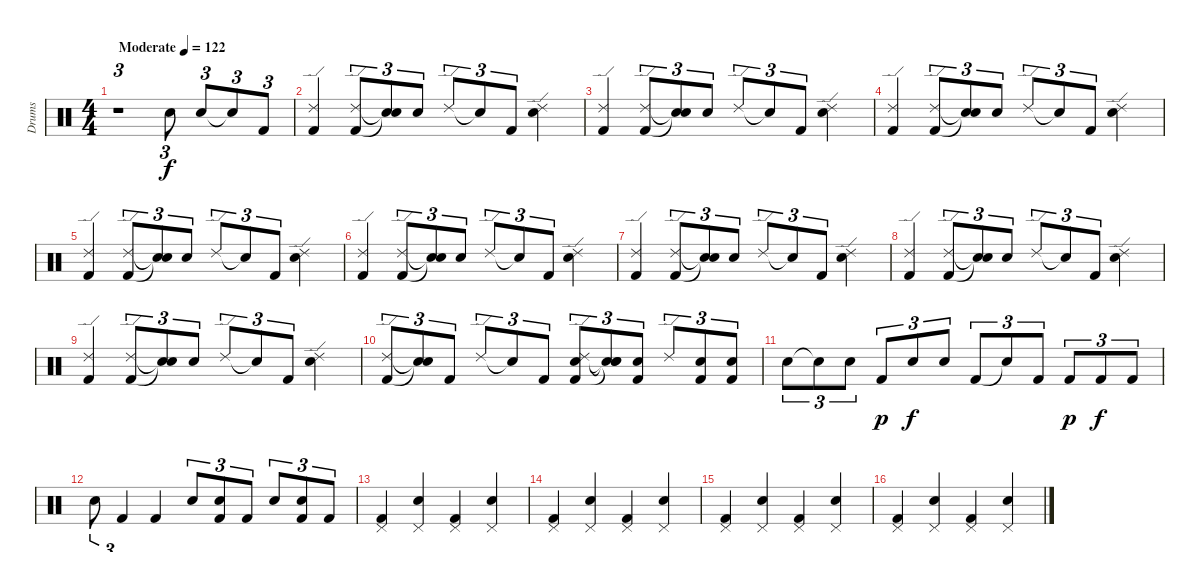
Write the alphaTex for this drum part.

\track ("Drums" "Drums") {instrument percussion}
\staff {score}
\articulation defaults
\ts (4 4)
\tempo (122 "Moderate")
\clef neutral
\ks c
r.1{tu (3 2) dy f} "Snare (hit) 2".8{tu (3 2)} "Snare (hit) 2".8{tu (3 2)} "Snare (hit)"{t}.8{tu (3 2)} "Kick (hit) 2".8{tu (3 2)} |
("Kick (hit) 2" "Ride (edge) 2").4 ("Kick (hit) 2" "Ride (edge) 2").8{tu (3 2)} ("Snare (hit)"{t} "Snare (hit)"{t}).8{tu (3 2)} "Snare (hit) 2".8{tu (3 2)} "Ride (edge) 2".8{tu (3 2)} "Snare (hit)"{t}.8{tu (3 2)} "Kick (hit) 2".8{tu (3 2)} ("Ride (edge) 2" "Snare (hit) 2").4 |
("Kick (hit) 2" "Ride (edge) 2").4 ("Kick (hit) 2" "Ride (edge) 2").8{tu (3 2)} ("Snare (hit)"{t} "Snare (hit)"{t}).8{tu (3 2)} "Snare (hit) 2".8{tu (3 2)} "Ride (edge) 2".8{tu (3 2)} "Snare (hit)"{t}.8{tu (3 2)} "Kick (hit) 2".8{tu (3 2)} ("Snare (hit) 2" "Ride (edge) 2").4 |
("Kick (hit) 2" "Ride (edge) 2").4 ("Kick (hit) 2" "Ride (edge) 2").8{tu (3 2)} ("Snare (hit)"{t} "Snare (hit)"{t}).8{tu (3 2)} "Snare (hit) 2".8{tu (3 2)} "Ride (edge) 2".8{tu (3 2)} "Snare (hit)"{t}.8{tu (3 2)} "Kick (hit) 2".8{tu (3 2)} ("Snare (hit) 2" "Ride (edge) 2").4 |
("Kick (hit) 2" "Ride (edge) 2").4 ("Kick (hit) 2" "Ride (edge) 2").8{tu (3 2)} ("Snare (hit)"{t} "Snare (hit)"{t}).8{tu (3 2)} "Snare (hit) 2".8{tu (3 2)} "Ride (edge) 2".8{tu (3 2)} "Snare (hit)"{t}.8{tu (3 2)} "Kick (hit) 2".8{tu (3 2)} ("Snare (hit) 2" "Ride (edge) 2").4 |
("Kick (hit) 2" "Ride (edge) 2").4 ("Kick (hit) 2" "Ride (edge) 2").8{tu (3 2)} ("Snare (hit)"{t} "Snare (hit)"{t}).8{tu (3 2)} "Snare (hit) 2".8{tu (3 2)} "Ride (edge) 2".8{tu (3 2)} "Snare (hit)"{t}.8{tu (3 2)} "Kick (hit) 2".8{tu (3 2)} ("Snare (hit) 2" "Ride (edge) 2").4 |
("Kick (hit) 2" "Ride (edge) 2").4 ("Kick (hit) 2" "Ride (edge) 2").8{tu (3 2)} ("Snare (hit)"{t} "Snare (hit)"{t}).8{tu (3 2)} "Snare (hit) 2".8{tu (3 2)} "Ride (edge) 2".8{tu (3 2)} "Snare (hit)"{t}.8{tu (3 2)} "Kick (hit) 2".8{tu (3 2)} ("Snare (hit) 2" "Ride (edge) 2").4 |
("Kick (hit) 2" "Ride (edge) 2").4 ("Kick (hit) 2" "Ride (edge) 2").8{tu (3 2)} ("Snare (hit)"{t} "Snare (hit)"{t}).8{tu (3 2)} "Snare (hit) 2".8{tu (3 2)} "Ride (edge) 2".8{tu (3 2)} "Snare (hit)"{t}.8{tu (3 2)} "Kick (hit) 2".8{tu (3 2)} ("Snare (hit) 2" "Ride (edge) 2").4 |
("Kick (hit) 2" "Ride (edge) 2").4 ("Kick (hit) 2" "Ride (edge) 2").8{tu (3 2)} ("Snare (hit)"{t} "Snare (hit)"{t}).8{tu (3 2)} "Snare (hit) 2".8{tu (3 2)} "Ride (edge) 2".8{tu (3 2)} "Snare (hit)"{t}.8{tu (3 2)} "Kick (hit) 2".8{tu (3 2)} ("Snare (hit) 2" "Ride (edge) 2").4 |
("Kick (hit) 2" "Ride (edge) 2").8{tu (3 2)} ("Snare (hit)"{t} "Snare (hit)"{t}).8{tu (3 2)} "Kick (hit) 2".8{tu (3 2)} "Ride (edge) 2".8{tu (3 2)} "Snare (hit)"{t}.8{tu (3 2)} "Kick (hit) 2".8{tu (3 2)} ("Kick (hit) 2" "Ride (edge) 2" "Snare (hit) 2").8{tu (3 2)} ("Snare (hit)"{t} "Snare (hit)"{t} "Snare (hit)"{t}).8{tu (3 2)} ("Kick (hit) 2" "Snare (hit) 2").8{tu (3 2)} "Ride (edge) 2".8{tu (3 2)} ("Kick (hit) 2" "Snare (hit) 2").8{tu (3 2)} ("Kick (hit) 2" "Snare (hit) 2").8{tu (3 2)} |
"Snare (hit) 2".8{tu (3 2)} "Snare (hit)"{t}.8{tu (3 2)} "Snare (hit) 2".8{tu (3 2)} "Kick (hit) 2".8{tu (3 2) dy p} "Snare (hit) 2".8{tu (3 2) dy f} "Snare (hit) 2".8{tu (3 2)} "Kick (hit) 2".8{tu (3 2)} "Snare (hit)"{t}.8{tu (3 2)} "Kick (hit) 2".8{tu (3 2)} "Kick (hit) 2".8{tu (3 2) dy p} "Kick (hit) 2".8{tu (3 2) dy f} "Kick (hit) 2".8{tu (3 2)} |
"Snare (hit) 2".8{tu (3 2)} "Kick (hit) 2".4{tu (3 2)} "Kick (hit) 2".4 "Snare (hit) 2".8{tu (3 2)} ("Snare (hit) 2" "Kick (hit) 2").8{tu (3 2)} "Kick (hit) 2".8{tu (3 2)} "Snare (hit) 2".8{tu (3 2)} ("Snare (hit) 2" "Kick (hit) 2").8{tu (3 2)} "Kick (hit) 2".8{tu (3 2)} |
("Pedal Hi-Hat (hit)" "Kick (hit) 2").4 ("Pedal Hi-Hat (hit)" "Snare (hit) 2").4 ("Pedal Hi-Hat (hit)" "Kick (hit) 2").4 ("Pedal Hi-Hat (hit)" "Snare (hit) 2").4 |
("Pedal Hi-Hat (hit)" "Kick (hit) 2").4 ("Pedal Hi-Hat (hit)" "Snare (hit) 2").4 ("Pedal Hi-Hat (hit)" "Kick (hit) 2").4 ("Pedal Hi-Hat (hit)" "Snare (hit) 2").4 |
("Pedal Hi-Hat (hit)" "Kick (hit) 2").4 ("Pedal Hi-Hat (hit)" "Snare (hit) 2").4 ("Pedal Hi-Hat (hit)" "Kick (hit) 2").4 ("Pedal Hi-Hat (hit)" "Snare (hit) 2").4 |
("Pedal Hi-Hat (hit)" "Kick (hit) 2").4 ("Pedal Hi-Hat (hit)" "Snare (hit) 2").4 ("Pedal Hi-Hat (hit)" "Kick (hit) 2").4 ("Pedal Hi-Hat (hit)" "Snare (hit) 2").4
